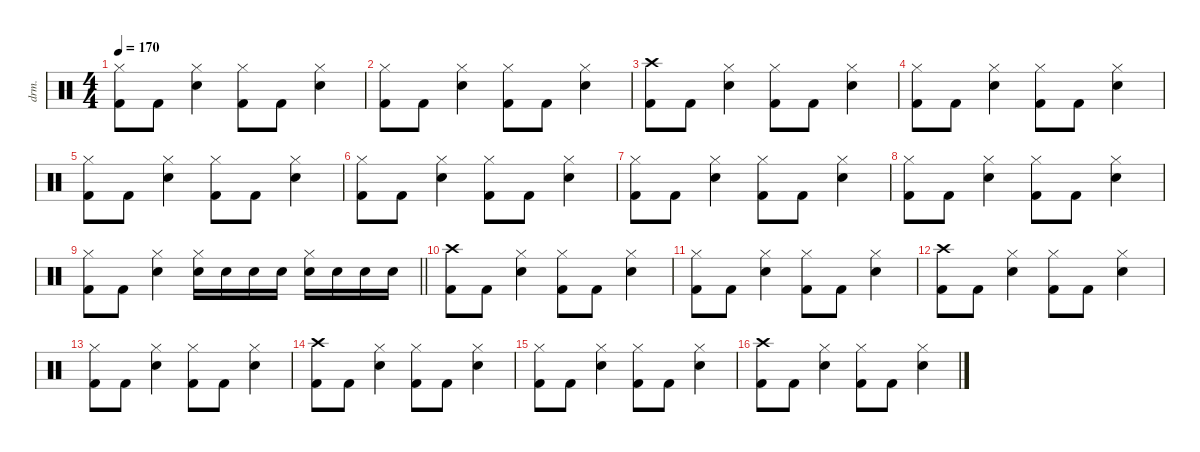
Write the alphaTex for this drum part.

\defaultSystemsLayout 4
\hideDynamics
\bracketExtendMode nobrackets
\otherSystemsTrackNameOrientation horizontal
\track ("Percussion" "drm.") {instrument percussion}
\staff {score}
\articulation defaults
\ts (4 4)
\tempo 170
\clef neutral
\ks c
("Hi-Hat (closed)" "Kick (hit) 2").8{dy f beam Down} "Kick (hit) 2".8{beam Down} ("Hi-Hat (closed)" "Snare (hit) 2").4{beam Down} ("Hi-Hat (closed)" "Kick (hit) 2").8{beam Down} "Kick (hit) 2".8{beam Down} ("Hi-Hat (closed)" "Snare (hit) 2").4{beam Down} |
("Hi-Hat (closed)" "Kick (hit) 2").8{beam Down} "Kick (hit) 2".8{beam Down} ("Hi-Hat (closed)" "Snare (hit) 2").4{beam Down} ("Hi-Hat (closed)" "Kick (hit) 2").8{beam Down} "Kick (hit) 2".8{beam Down} ("Hi-Hat (closed)" "Snare (hit) 2").4{beam Down} |
("Crash high (hit)" "Kick (hit) 2").8{beam Down} "Kick (hit) 2".8{beam Down} ("Hi-Hat (closed)" "Snare (hit) 2").4{beam Down} ("Hi-Hat (closed)" "Kick (hit) 2").8{beam Down} "Kick (hit) 2".8{beam Down} ("Hi-Hat (closed)" "Snare (hit) 2").4{beam Down} |
("Hi-Hat (closed)" "Kick (hit) 2").8{beam Down} "Kick (hit) 2".8{beam Down} ("Hi-Hat (closed)" "Snare (hit) 2").4{beam Down} ("Hi-Hat (closed)" "Kick (hit) 2").8{beam Down} "Kick (hit) 2".8{beam Down} ("Hi-Hat (closed)" "Snare (hit) 2").4{beam Down} |
("Hi-Hat (closed)" "Kick (hit) 2").8{beam Down} "Kick (hit) 2".8{beam Down} ("Hi-Hat (closed)" "Snare (hit) 2").4{beam Down} ("Hi-Hat (closed)" "Kick (hit) 2").8{beam Down} "Kick (hit) 2".8{beam Down} ("Hi-Hat (closed)" "Snare (hit) 2").4{beam Down} |
("Hi-Hat (closed)" "Kick (hit) 2").8{beam Down} "Kick (hit) 2".8{beam Down} ("Hi-Hat (closed)" "Snare (hit) 2").4{beam Down} ("Hi-Hat (closed)" "Kick (hit) 2").8{beam Down} "Kick (hit) 2".8{beam Down} ("Hi-Hat (closed)" "Snare (hit) 2").4{beam Down} |
("Hi-Hat (closed)" "Kick (hit) 2").8{beam Down} "Kick (hit) 2".8{beam Down} ("Hi-Hat (closed)" "Snare (hit) 2").4{beam Down} ("Hi-Hat (closed)" "Kick (hit) 2").8{beam Down} "Kick (hit) 2".8{beam Down} ("Hi-Hat (closed)" "Snare (hit) 2").4{beam Down} |
("Hi-Hat (closed)" "Kick (hit) 2").8{beam Down} "Kick (hit) 2".8{beam Down} ("Hi-Hat (closed)" "Snare (hit) 2").4{beam Down} ("Hi-Hat (closed)" "Kick (hit) 2").8{beam Down} "Kick (hit) 2".8{beam Down} ("Hi-Hat (closed)" "Snare (hit) 2").4{beam Down} |
\barLineRight lightlight
("Hi-Hat (closed)" "Kick (hit) 2").8{beam Down} "Kick (hit) 2".8{beam Down} ("Hi-Hat (closed)" "Snare (hit) 2").4{beam Down} ("Hi-Hat (closed)" "Snare (hit) 2").16{beam Down} "Snare (hit) 2".16{beam Down} "Snare (hit) 2".16{beam Down} "Snare (hit) 2".16{beam Down} ("Hi-Hat (closed)" "Snare (hit) 2").16{beam Down} "Snare (hit) 2".16{beam Down} "Snare (hit) 2".16{beam Down} "Snare (hit) 2".16{beam Down} |
("Crash high (hit)" "Kick (hit) 2").8{beam Down} "Kick (hit) 2".8{beam Down} ("Hi-Hat (closed)" "Snare (hit) 2").4{beam Down} ("Hi-Hat (closed)" "Kick (hit) 2").8{beam Down} "Kick (hit) 2".8{beam Down} ("Hi-Hat (closed)" "Snare (hit) 2").4{beam Down} |
("Hi-Hat (closed)" "Kick (hit) 2").8{beam Down} "Kick (hit) 2".8{beam Down} ("Hi-Hat (closed)" "Snare (hit) 2").4{beam Down} ("Hi-Hat (closed)" "Kick (hit) 2").8{beam Down} "Kick (hit) 2".8{beam Down} ("Hi-Hat (closed)" "Snare (hit) 2").4{beam Down} |
("Crash high (hit)" "Kick (hit) 2").8{beam Down} "Kick (hit) 2".8{beam Down} ("Hi-Hat (closed)" "Snare (hit) 2").4{beam Down} ("Hi-Hat (closed)" "Kick (hit) 2").8{beam Down} "Kick (hit) 2".8{beam Down} ("Hi-Hat (closed)" "Snare (hit) 2").4{beam Down} |
("Hi-Hat (closed)" "Kick (hit) 2").8{beam Down} "Kick (hit) 2".8{beam Down} ("Hi-Hat (closed)" "Snare (hit) 2").4{beam Down} ("Hi-Hat (closed)" "Kick (hit) 2").8{beam Down} "Kick (hit) 2".8{beam Down} ("Hi-Hat (closed)" "Snare (hit) 2").4{beam Down} |
("Crash high (hit)" "Kick (hit) 2").8{beam Down} "Kick (hit) 2".8{beam Down} ("Hi-Hat (closed)" "Snare (hit) 2").4{beam Down} ("Hi-Hat (closed)" "Kick (hit) 2").8{beam Down} "Kick (hit) 2".8{beam Down} ("Hi-Hat (closed)" "Snare (hit) 2").4{beam Down} |
("Hi-Hat (closed)" "Kick (hit) 2").8{beam Down} "Kick (hit) 2".8{beam Down} ("Hi-Hat (closed)" "Snare (hit) 2").4{beam Down} ("Hi-Hat (closed)" "Kick (hit) 2").8{beam Down} "Kick (hit) 2".8{beam Down} ("Hi-Hat (closed)" "Snare (hit) 2").4{beam Down} |
("Crash high (hit)" "Kick (hit) 2").8{beam Down} "Kick (hit) 2".8{beam Down} ("Hi-Hat (closed)" "Snare (hit) 2").4{beam Down} ("Hi-Hat (closed)" "Kick (hit) 2").8{beam Down} "Kick (hit) 2".8{beam Down} ("Hi-Hat (closed)" "Snare (hit) 2").4{beam Down}
